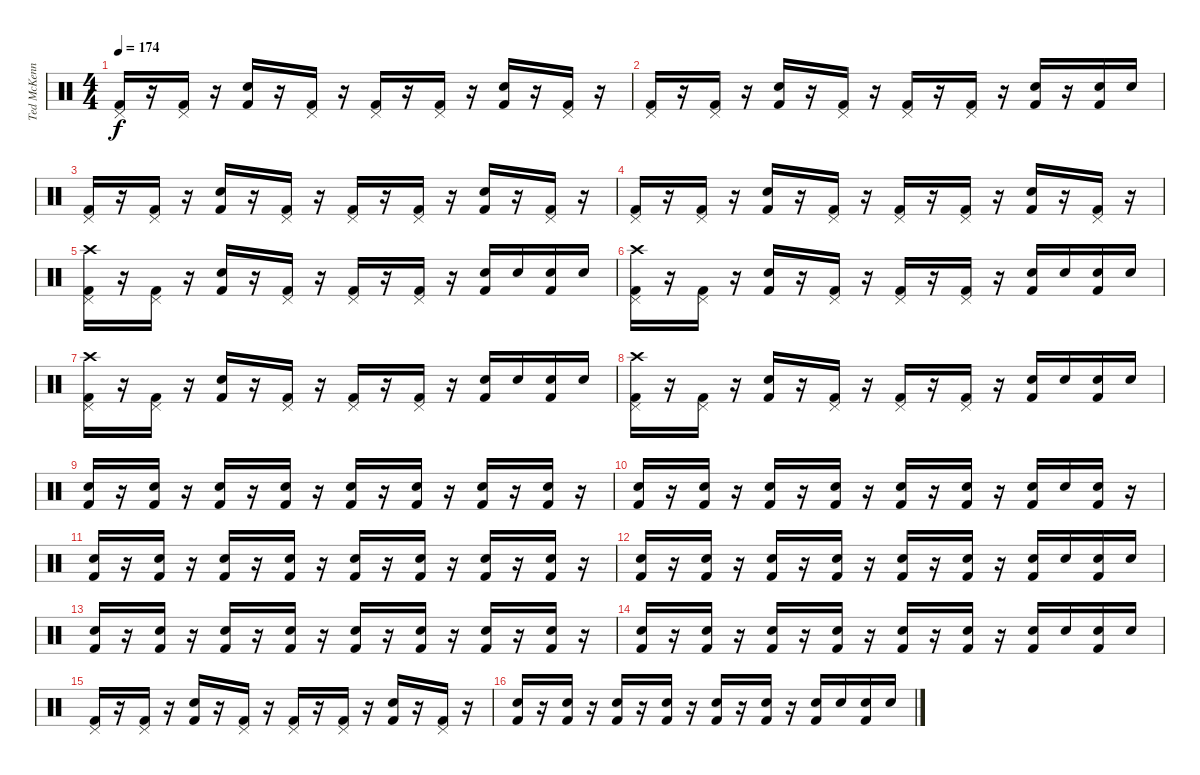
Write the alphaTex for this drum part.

\track ("Ted McKenna" "Ted McKenn") {instrument percussion}
\staff {score}
\articulation defaults
\ts (4 4)
\tempo 174
\clef neutral
\ks c
("Pedal Hi-Hat (hit)" "Kick (hit) 2").16{dy f} r.16 ("Pedal Hi-Hat (hit)" "Kick (hit) 2").16 r.16 ("Snare (hit) 2" "Kick (hit) 2").16 r.16 ("Pedal Hi-Hat (hit)" "Kick (hit) 2").16 r.16 ("Pedal Hi-Hat (hit)" "Kick (hit) 2").16 r.16 ("Pedal Hi-Hat (hit)" "Kick (hit) 2").16 r.16 ("Snare (hit) 2" "Kick (hit) 2").16 r.16 ("Pedal Hi-Hat (hit)" "Kick (hit) 2").16 r.16 |
("Pedal Hi-Hat (hit)" "Kick (hit) 2").16 r.16 ("Pedal Hi-Hat (hit)" "Kick (hit) 2").16 r.16 ("Snare (hit) 2" "Kick (hit) 2").16 r.16 ("Pedal Hi-Hat (hit)" "Kick (hit) 2").16 r.16 ("Pedal Hi-Hat (hit)" "Kick (hit) 2").16 r.16 ("Pedal Hi-Hat (hit)" "Kick (hit) 2").16 r.16 ("Snare (hit) 2" "Kick (hit) 2").16 r.16 ("Electric Snare (hit)" "Kick (hit) 2").16 "Electric Snare (hit)".16 |
("Pedal Hi-Hat (hit)" "Kick (hit) 2").16 r.16 ("Pedal Hi-Hat (hit)" "Kick (hit) 2").16 r.16 ("Snare (hit) 2" "Kick (hit) 2").16 r.16 ("Pedal Hi-Hat (hit)" "Kick (hit) 2").16 r.16 ("Pedal Hi-Hat (hit)" "Kick (hit) 2").16 r.16 ("Pedal Hi-Hat (hit)" "Kick (hit) 2").16 r.16 ("Snare (hit) 2" "Kick (hit) 2").16 r.16 ("Pedal Hi-Hat (hit)" "Kick (hit) 2").16 r.16 |
("Pedal Hi-Hat (hit)" "Kick (hit) 2").16 r.16 ("Pedal Hi-Hat (hit)" "Kick (hit) 2").16 r.16 ("Snare (hit) 2" "Kick (hit) 2").16 r.16 ("Pedal Hi-Hat (hit)" "Kick (hit) 2").16 r.16 ("Pedal Hi-Hat (hit)" "Kick (hit) 2").16 r.16 ("Pedal Hi-Hat (hit)" "Kick (hit) 2").16 r.16 ("Snare (hit) 2" "Kick (hit) 2").16 r.16 ("Pedal Hi-Hat (hit)" "Kick (hit) 2").16 r.16 |
("Crash high (hit)" "Pedal Hi-Hat (hit)" "Kick (hit) 2").16 r.16 ("Pedal Hi-Hat (hit)" "Kick (hit) 2").16 r.16 ("Snare (hit) 2" "Kick (hit) 2").16 r.16 ("Pedal Hi-Hat (hit)" "Kick (hit) 2").16 r.16 ("Pedal Hi-Hat (hit)" "Kick (hit) 2").16 r.16 ("Pedal Hi-Hat (hit)" "Kick (hit) 2").16 r.16 ("Electric Snare (hit)" "Kick (hit) 2").16 "Electric Snare (hit)".16 ("Electric Snare (hit)" "Kick (hit) 2").16 "Electric Snare (hit)".16 |
("Crash high (hit)" "Pedal Hi-Hat (hit)" "Kick (hit) 2").16 r.16 ("Pedal Hi-Hat (hit)" "Kick (hit) 2").16 r.16 ("Snare (hit) 2" "Kick (hit) 2").16 r.16 ("Pedal Hi-Hat (hit)" "Kick (hit) 2").16 r.16 ("Pedal Hi-Hat (hit)" "Kick (hit) 2").16 r.16 ("Pedal Hi-Hat (hit)" "Kick (hit) 2").16 r.16 ("Electric Snare (hit)" "Kick (hit) 2").16 "Electric Snare (hit)".16 ("Electric Snare (hit)" "Kick (hit) 2").16 "Electric Snare (hit)".16 |
("Crash high (hit)" "Pedal Hi-Hat (hit)" "Kick (hit) 2").16 r.16 ("Pedal Hi-Hat (hit)" "Kick (hit) 2").16 r.16 ("Snare (hit) 2" "Kick (hit) 2").16 r.16 ("Pedal Hi-Hat (hit)" "Kick (hit) 2").16 r.16 ("Pedal Hi-Hat (hit)" "Kick (hit) 2").16 r.16 ("Pedal Hi-Hat (hit)" "Kick (hit) 2").16 r.16 ("Electric Snare (hit)" "Kick (hit) 2").16 "Electric Snare (hit)".16 ("Electric Snare (hit)" "Kick (hit) 2").16 "Electric Snare (hit)".16 |
("Crash high (hit)" "Pedal Hi-Hat (hit)" "Kick (hit) 2").16 r.16 ("Pedal Hi-Hat (hit)" "Kick (hit) 2").16 r.16 ("Snare (hit) 2" "Kick (hit) 2").16 r.16 ("Pedal Hi-Hat (hit)" "Kick (hit) 2").16 r.16 ("Pedal Hi-Hat (hit)" "Kick (hit) 2").16 r.16 ("Pedal Hi-Hat (hit)" "Kick (hit) 2").16 r.16 ("Electric Snare (hit)" "Kick (hit) 2").16 "Electric Snare (hit)".16 ("Electric Snare (hit)" "Kick (hit) 2").16 "Electric Snare (hit)".16 |
("Snare (hit) 2" "Kick (hit) 2").16 r.16 ("Snare (hit) 2" "Kick (hit) 2").16 r.16 ("Snare (hit) 2" "Kick (hit) 2").16 r.16 ("Snare (hit) 2" "Kick (hit) 2").16 r.16 ("Snare (hit) 2" "Kick (hit) 2").16 r.16 ("Snare (hit) 2" "Kick (hit) 2").16 r.16 ("Snare (hit) 2" "Kick (hit) 2").16 r.16 ("Snare (hit) 2" "Kick (hit) 2").16 r.16 |
("Snare (hit) 2" "Kick (hit) 2").16 r.16 ("Snare (hit) 2" "Kick (hit) 2").16 r.16 ("Snare (hit) 2" "Kick (hit) 2").16 r.16 ("Snare (hit) 2" "Kick (hit) 2").16 r.16 ("Snare (hit) 2" "Kick (hit) 2").16 r.16 ("Snare (hit) 2" "Kick (hit) 2").16 r.16 ("Electric Snare (hit)" "Kick (hit) 2").16 "Electric Snare (hit)".16 ("Snare (hit) 2" "Kick (hit) 2").16 r.16 |
("Snare (hit) 2" "Kick (hit) 2").16 r.16 ("Snare (hit) 2" "Kick (hit) 2").16 r.16 ("Snare (hit) 2" "Kick (hit) 2").16 r.16 ("Snare (hit) 2" "Kick (hit) 2").16 r.16 ("Snare (hit) 2" "Kick (hit) 2").16 r.16 ("Snare (hit) 2" "Kick (hit) 2").16 r.16 ("Snare (hit) 2" "Kick (hit) 2").16 r.16 ("Snare (hit) 2" "Kick (hit) 2").16 r.16 |
("Snare (hit) 2" "Kick (hit) 2").16 r.16 ("Snare (hit) 2" "Kick (hit) 2").16 r.16 ("Snare (hit) 2" "Kick (hit) 2").16 r.16 ("Snare (hit) 2" "Kick (hit) 2").16 r.16 ("Snare (hit) 2" "Kick (hit) 2").16 r.16 ("Snare (hit) 2" "Kick (hit) 2").16 r.16 ("Electric Snare (hit)" "Kick (hit) 2").16 "Electric Snare (hit)".16 ("Snare (hit) 2" "Kick (hit) 2").16 "Snare (hit) 2".16 |
("Snare (hit) 2" "Kick (hit) 2").16 r.16 ("Snare (hit) 2" "Kick (hit) 2").16 r.16 ("Snare (hit) 2" "Kick (hit) 2").16 r.16 ("Snare (hit) 2" "Kick (hit) 2").16 r.16 ("Snare (hit) 2" "Kick (hit) 2").16 r.16 ("Snare (hit) 2" "Kick (hit) 2").16 r.16 ("Snare (hit) 2" "Kick (hit) 2").16 r.16 ("Snare (hit) 2" "Kick (hit) 2").16 r.16 |
("Snare (hit) 2" "Kick (hit) 2").16 r.16 ("Snare (hit) 2" "Kick (hit) 2").16 r.16 ("Snare (hit) 2" "Kick (hit) 2").16 r.16 ("Snare (hit) 2" "Kick (hit) 2").16 r.16 ("Snare (hit) 2" "Kick (hit) 2").16 r.16 ("Snare (hit) 2" "Kick (hit) 2").16 r.16 ("Electric Snare (hit)" "Kick (hit) 2").16 "Electric Snare (hit)".16 ("Snare (hit) 2" "Kick (hit) 2").16 "Snare (hit) 2".16 |
("Pedal Hi-Hat (hit)" "Kick (hit) 2").16 r.16 ("Pedal Hi-Hat (hit)" "Kick (hit) 2").16 r.16 ("Snare (hit) 2" "Kick (hit) 2").16 r.16 ("Pedal Hi-Hat (hit)" "Kick (hit) 2").16 r.16 ("Pedal Hi-Hat (hit)" "Kick (hit) 2").16 r.16 ("Pedal Hi-Hat (hit)" "Kick (hit) 2").16 r.16 ("Snare (hit) 2" "Kick (hit) 2").16 r.16 ("Pedal Hi-Hat (hit)" "Kick (hit) 2").16 r.16 |
("Snare (hit) 2" "Kick (hit) 2").16 r.16 ("Snare (hit) 2" "Kick (hit) 2").16 r.16 ("Snare (hit) 2" "Kick (hit) 2").16 r.16 ("Snare (hit) 2" "Kick (hit) 2").16 r.16 ("Snare (hit) 2" "Kick (hit) 2").16 r.16 ("Snare (hit) 2" "Kick (hit) 2").16 r.16 ("Electric Snare (hit)" "Kick (hit) 2").16 "Electric Snare (hit)".16 ("Snare (hit) 2" "Kick (hit) 2").16 "Snare (hit) 2".16
